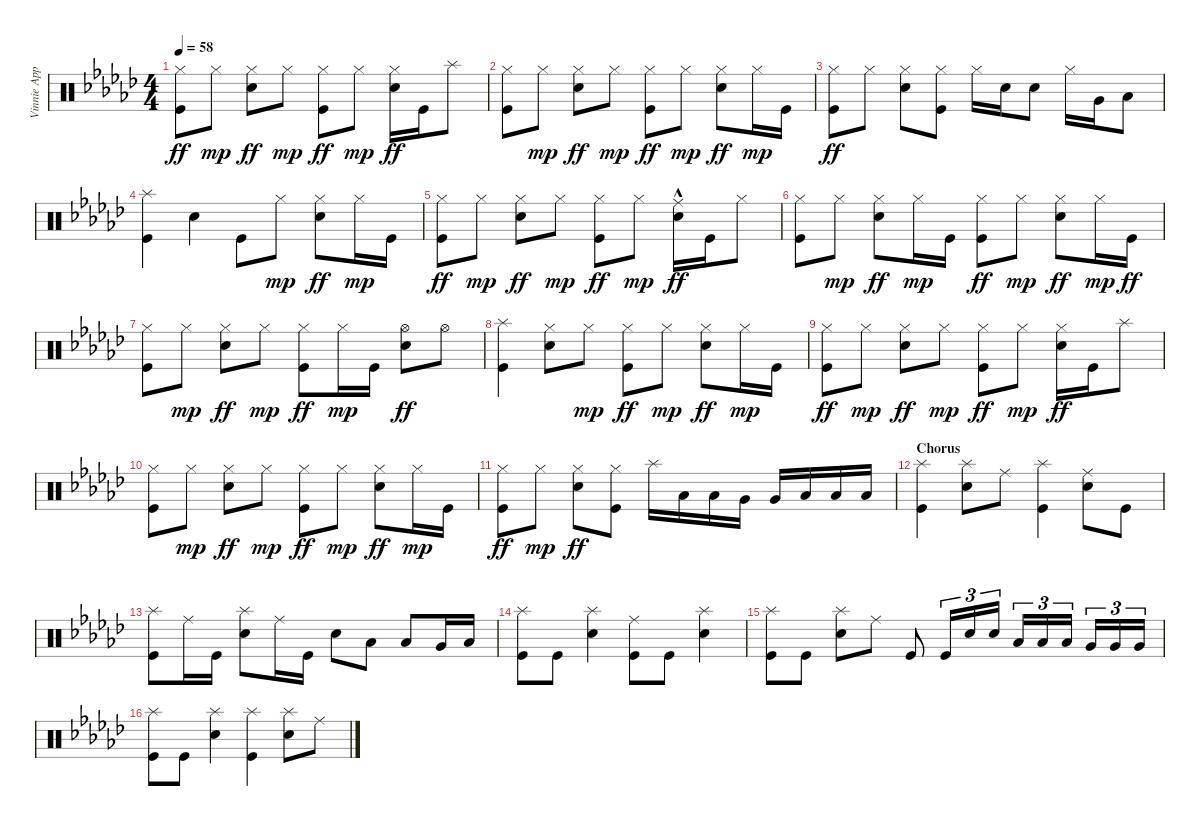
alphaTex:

\track ("Vinnie Appice" "Vinnie App") {instrument percussion}
\staff {score}
\articulation defaults
\ts (4 4)
\tempo 58
\clef neutral
\ks ebminor
("Kick (hit)" "Hi-Hat (closed)").8{dy ff} "Hi-Hat (closed)".8{dy mp} ("Snare (hit) 2" "Hi-Hat (closed)").8{dy ff} "Hi-Hat (closed)".8{dy mp} ("Kick (hit)" "Hi-Hat (closed)").8{dy ff} "Hi-Hat (closed)".8{dy mp} ("Snare (hit) 2" "Hi-Hat (closed)").16{dy ff} "Kick (hit)".16 "Splash (hit)".8 |
("Kick (hit)" "Hi-Hat (closed)").8 "Hi-Hat (closed)".8{dy mp} ("Snare (hit) 2" "Hi-Hat (closed)").8{dy ff} "Hi-Hat (closed)".8{dy mp} ("Kick (hit)" "Hi-Hat (closed)").8{dy ff} "Hi-Hat (closed)".8{dy mp} ("Snare (hit) 2" "Hi-Hat (closed)").8{dy ff} "Hi-Hat (closed)".16{dy mp} "Kick (hit)".16 |
("Kick (hit)" "Hi-Hat (closed)").8{dy ff} "Hi-Hat (closed)".8 ("Snare (hit) 2" "Hi-Hat (closed)").8 ("Kick (hit)" "Hi-Hat (closed)").8 "Hi-Hat (closed)".16 "Snare (hit) 2".16 "Snare (hit) 2".8 "Hi-Hat (closed)".16 "Very Low Tom (hit)".16 "Low Floor Tom (hit)".8 |
("Kick (hit)" "Splash (hit)").4 "Snare (hit) 2".4 "Kick (hit)".8 "Hi-Hat (closed)".8{dy mp} ("Snare (hit) 2" "Hi-Hat (closed)").8{dy ff} "Hi-Hat (closed)".16{dy mp} "Kick (hit)".16 |
("Kick (hit)" "Hi-Hat (closed)").8{dy ff} "Hi-Hat (closed)".8{dy mp} ("Snare (hit) 2" "Hi-Hat (closed)").8{dy ff} "Hi-Hat (closed)".8{dy mp} ("Kick (hit)" "Hi-Hat (closed)").8{dy ff} "Hi-Hat (closed)".8{dy mp} ("Snare (hit) 2"{hac} "Ride (middle)").16{dy ff} "Kick (hit)".16 "Hi-Hat (closed)".8 |
("Kick (hit)" "Hi-Hat (closed)").8 "Hi-Hat (closed)".8{dy mp} ("Snare (hit) 2" "Hi-Hat (closed)").8{dy ff} "Hi-Hat (closed)".16{dy mp} "Kick (hit)".16 ("Kick (hit)" "Hi-Hat (closed)").8{dy ff} "Hi-Hat (closed)".8{dy mp} ("Snare (hit) 2" "Hi-Hat (closed)").8{dy ff} "Hi-Hat (closed)".16{dy mp} "Kick (hit)".16{dy ff} |
("Kick (hit)" "Hi-Hat (closed)").8 "Hi-Hat (closed)".8{dy mp} ("Snare (hit) 2" "Hi-Hat (closed)").8{dy ff} "Hi-Hat (closed)".8{dy mp} ("Kick (hit)" "Hi-Hat (closed)").8{dy ff} "Hi-Hat (closed)".16{dy mp} "Kick (hit)".16 ("Snare (hit) 2" "Hi-Hat (open)").8{dy ff} "Hi-Hat (open)".8 |
("Kick (hit)" "Splash (hit)").4 ("Snare (hit) 2" "Hi-Hat (closed)").8 "Hi-Hat (closed)".8{dy mp} ("Kick (hit)" "Hi-Hat (closed)").8{dy ff} "Hi-Hat (closed)".8{dy mp} ("Snare (hit) 2" "Hi-Hat (closed)").8{dy ff} "Hi-Hat (closed)".16{dy mp} "Kick (hit)".16 |
("Kick (hit)" "Hi-Hat (closed)").8{dy ff} "Hi-Hat (closed)".8{dy mp} ("Snare (hit) 2" "Hi-Hat (closed)").8{dy ff} "Hi-Hat (closed)".8{dy mp} ("Kick (hit)" "Hi-Hat (closed)").8{dy ff} "Hi-Hat (closed)".8{dy mp} ("Snare (hit) 2" "Hi-Hat (closed)").16{dy ff} "Kick (hit)".16 "Splash (hit)".8 |
("Kick (hit)" "Hi-Hat (closed)").8 "Hi-Hat (closed)".8{dy mp} ("Snare (hit) 2" "Hi-Hat (closed)").8{dy ff} "Hi-Hat (closed)".8{dy mp} ("Kick (hit)" "Hi-Hat (closed)").8{dy ff} "Hi-Hat (closed)".8{dy mp} ("Snare (hit) 2" "Hi-Hat (closed)").8{dy ff} "Hi-Hat (closed)".16{dy mp} "Kick (hit)".16 |
("Kick (hit)" "Hi-Hat (closed)").8{dy ff} "Hi-Hat (closed)".8{dy mp} ("Snare (hit) 2" "Hi-Hat (closed)").8{dy ff} ("Hi-Hat (closed)" "Kick (hit)").8 "Splash (hit)".16 "Low Tom (hit)".16 "Low Tom (hit)".16 "Very Low Tom (hit)".16 "Very Low Tom (hit)".16 "Low Floor Tom (hit)".16 "Low Floor Tom (hit)".16 "Low Floor Tom (hit)".16 |
\section ("" "Chorus")
("Kick (hit)" "Splash (hit)").4 ("Splash (hit)" "Snare (hit) 2").8 "Ride (middle)".8 ("Kick (hit)" "Splash (hit)").4 ("Snare (hit) 2" "Ride (middle)").8 "Kick (hit)".8 |
("Kick (hit)" "Splash (hit)").8 "Ride (middle)".16 "Kick (hit)".16 ("Splash (hit)" "Snare (hit) 2").8 "Ride (middle)".16 "Kick (hit)".16 "Snare (hit) 2".8 "Low Tom (hit)".8 "Low Tom (hit)".8 "Very Low Tom (hit)".16 "Low Floor Tom (hit)".16 |
("Kick (hit)" "Splash (hit)").8 "Kick (hit)".8 ("Snare (hit) 2" "Splash (hit)").4 ("Kick (hit)" "Ride (middle)").8 "Kick (hit)".8 ("Snare (hit) 2" "Splash (hit)").4 |
("Kick (hit)" "Splash (hit)").8 "Kick (hit)".8 ("Snare (hit) 2" "Splash (hit)").8 "Ride (middle)".8 "Kick (hit)".8 "Kick (hit)".16{tu (3 2)} "Snare (hit) 2".16{tu (3 2)} "Snare (hit) 2".16{tu (3 2)} "Low Tom (hit)".16{tu (3 2)} "Low Tom (hit)".16{tu (3 2)} "Low Tom (hit)".16{tu (3 2)} "Very Low Tom (hit)".16{tu (3 2)} "Very Low Tom (hit)".16{tu (3 2)} "Very Low Tom (hit)".16{tu (3 2)} |
("Kick (hit)" "Splash (hit)").8 "Kick (hit)".8 ("Splash (hit)" "Snare (hit) 2").4 ("Kick (hit)" "Splash (hit)").4 ("Splash (hit)" "Snare (hit) 2").8 "Ride (middle)".8
